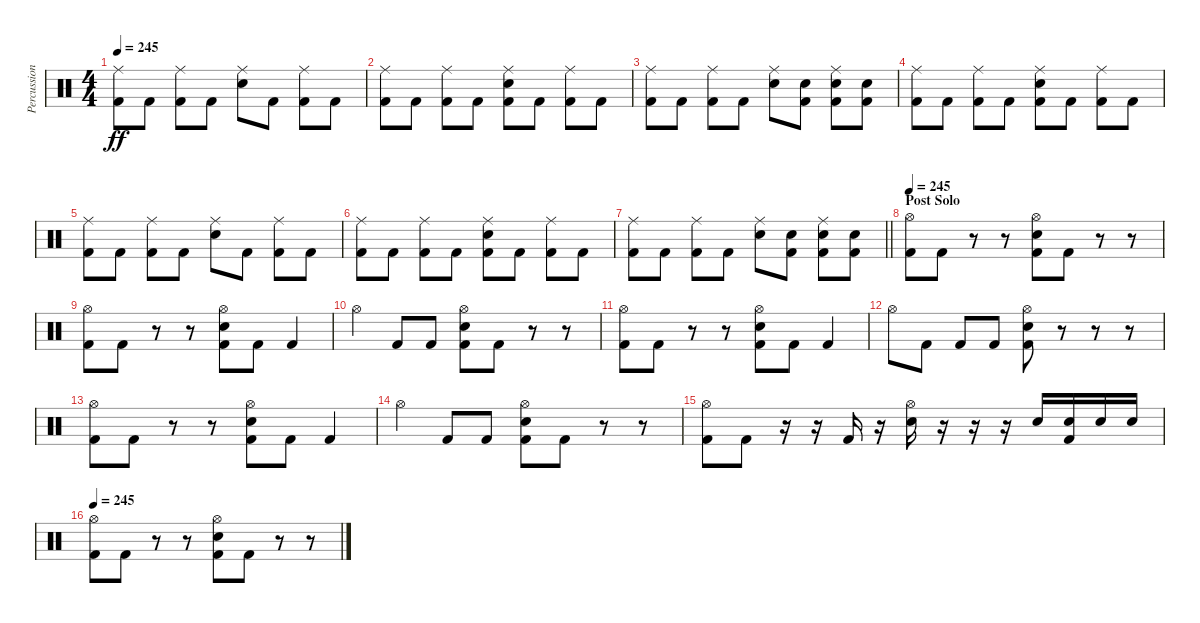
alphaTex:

\track ("Percussion" "Percussion") {instrument percussion}
\staff {score}
\articulation defaults
\ts (4 4)
\tempo 245
\clef neutral
\ks c
("Ride (middle)" "Kick (hit) 2").8{dy ff} "Kick (hit) 2".8 ("Ride (middle)" "Kick (hit) 2").8 "Kick (hit) 2".8 ("Ride (middle)" "Electric Snare (hit)").8 "Kick (hit) 2".8 ("Ride (middle)" "Kick (hit) 2").8 "Kick (hit) 2".8 |
("Ride (middle)" "Kick (hit) 2").8 "Kick (hit) 2".8 ("Ride (middle)" "Kick (hit) 2").8 "Kick (hit) 2".8 ("Ride (middle)" "Electric Snare (hit)" "Kick (hit) 2").8 "Kick (hit) 2".8 ("Ride (middle)" "Kick (hit) 2").8 "Kick (hit) 2".8 |
("Ride (middle)" "Kick (hit) 2").8 "Kick (hit) 2".8 ("Ride (middle)" "Kick (hit) 2").8 "Kick (hit) 2".8 ("Ride (middle)" "Electric Snare (hit)").8 ("Electric Snare (hit)" "Kick (hit) 2").8 ("Ride (middle)" "Electric Snare (hit)" "Kick (hit) 2").8 ("Electric Snare (hit)" "Kick (hit) 2").8 |
("Ride (middle)" "Kick (hit) 2").8 "Kick (hit) 2".8 ("Ride (middle)" "Kick (hit) 2").8 "Kick (hit) 2".8 ("Ride (middle)" "Electric Snare (hit)" "Kick (hit) 2").8 "Kick (hit) 2".8 ("Ride (middle)" "Kick (hit) 2").8 "Kick (hit) 2".8 |
("Ride (middle)" "Kick (hit) 2").8 "Kick (hit) 2".8 ("Ride (middle)" "Kick (hit) 2").8 "Kick (hit) 2".8 ("Ride (middle)" "Electric Snare (hit)").8 "Kick (hit) 2".8 ("Ride (middle)" "Kick (hit) 2").8 "Kick (hit) 2".8 |
("Ride (middle)" "Kick (hit) 2").8 "Kick (hit) 2".8 ("Ride (middle)" "Kick (hit) 2").8 "Kick (hit) 2".8 ("Ride (middle)" "Electric Snare (hit)" "Kick (hit) 2").8 "Kick (hit) 2".8 ("Ride (middle)" "Kick (hit) 2").8 "Kick (hit) 2".8 |
\barLineRight lightlight
("Ride (middle)" "Kick (hit) 2").8 "Kick (hit) 2".8 ("Ride (middle)" "Kick (hit) 2").8 "Kick (hit) 2".8 ("Ride (middle)" "Electric Snare (hit)").8 ("Electric Snare (hit)" "Kick (hit) 2").8 ("Ride (middle)" "Electric Snare (hit)" "Kick (hit) 2").8 ("Electric Snare (hit)" "Kick (hit) 2").8 |
\section ("" "Post Solo")
\tempo 245
("Hi-Hat (open)" "Kick (hit) 2").8 "Kick (hit) 2".8 r.8 r.8 ("Hi-Hat (open)" "Electric Snare (hit)" "Kick (hit) 2").8 "Kick (hit) 2".8 r.8 r.8 |
("Hi-Hat (open)" "Kick (hit) 2").8 "Kick (hit) 2".8 r.8 r.8 ("Hi-Hat (open)" "Electric Snare (hit)" "Kick (hit) 2").8 "Kick (hit) 2".8 "Kick (hit) 2".4 |
"Hi-Hat (open)".4 "Kick (hit) 2".8 "Kick (hit) 2".8 ("Hi-Hat (open)" "Electric Snare (hit)" "Kick (hit) 2").8 "Kick (hit) 2".8 r.8 r.8 |
("Hi-Hat (open)" "Kick (hit) 2").8 "Kick (hit) 2".8 r.8 r.8 ("Hi-Hat (open)" "Electric Snare (hit)" "Kick (hit) 2").8 "Kick (hit) 2".8 "Kick (hit) 2".4 |
"Hi-Hat (open)".8 "Kick (hit) 2".8 "Kick (hit) 2".8 "Kick (hit) 2".8 ("Hi-Hat (open)" "Electric Snare (hit)" "Kick (hit) 2").8 r.8 r.8 r.8 |
("Hi-Hat (open)" "Kick (hit) 2").8 "Kick (hit) 2".8 r.8 r.8 ("Hi-Hat (open)" "Electric Snare (hit)" "Kick (hit) 2").8 "Kick (hit) 2".8 "Kick (hit) 2".4 |
"Hi-Hat (open)".4 "Kick (hit) 2".8 "Kick (hit) 2".8 ("Hi-Hat (open)" "Electric Snare (hit)" "Kick (hit) 2").8 "Kick (hit) 2".8 r.8 r.8 |
("Hi-Hat (open)" "Kick (hit) 2").8 "Kick (hit) 2".8 r.16 r.16 "Kick (hit) 2".16 r.16 ("Hi-Hat (open)" "Electric Snare (hit)").16 r.16 r.16 r.16 "Electric Snare (hit)".16 ("Electric Snare (hit)" "Kick (hit) 2").16 "Electric Snare (hit)".16 "Electric Snare (hit)".16 |
\tempo 245
("Hi-Hat (open)" "Kick (hit) 2").8 "Kick (hit) 2".8 r.8 r.8 ("Hi-Hat (open)" "Electric Snare (hit)" "Kick (hit) 2").8 "Kick (hit) 2".8 r.8 r.8
